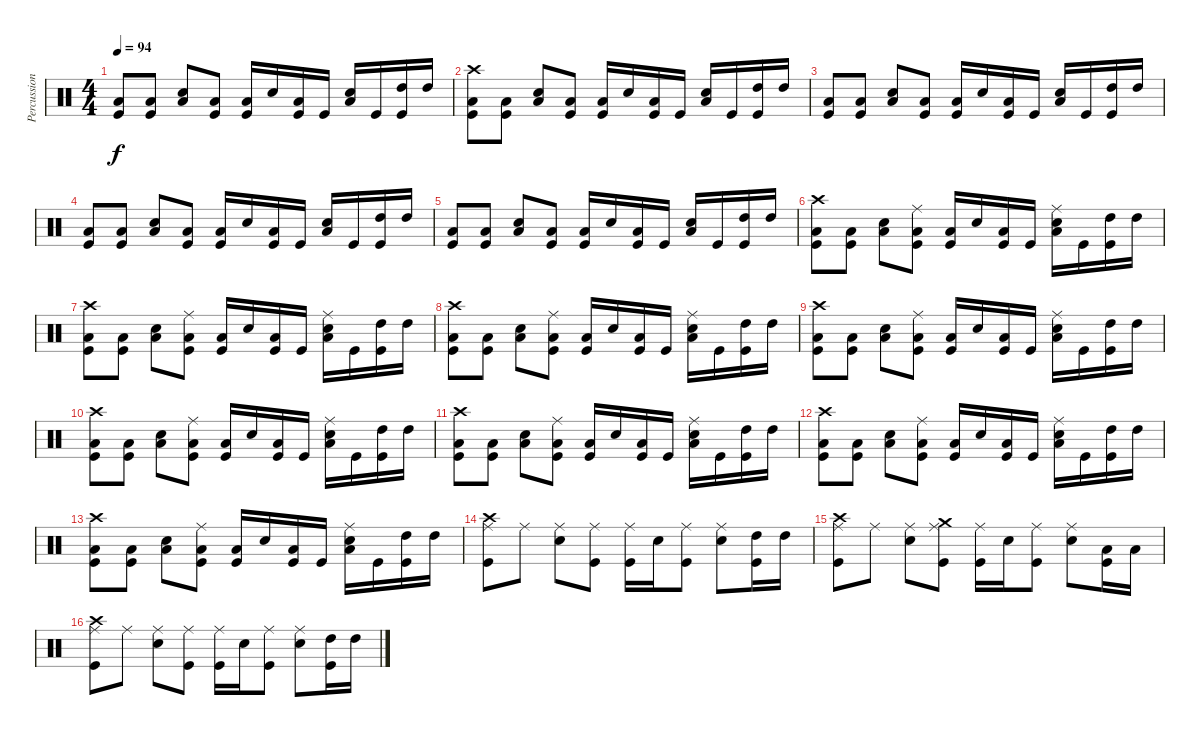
\track ("Percussions" "Percussion") {instrument percussion}
\staff {score}
\articulation defaults
\ts (4 4)
\tempo 94
\clef neutral
\ks c
("Kick (hit)" "Low Floor Tom (hit)").8{dy f} ("Kick (hit)" "Low Floor Tom (hit)").8 ("Electric Snare (hit)" "Low Floor Tom (hit)").8 ("Kick (hit)" "Low Floor Tom (hit)").8 ("Kick (hit)" "Low Floor Tom (hit)").16 "Electric Snare (hit)".16 ("Kick (hit)" "Low Floor Tom (hit)").16 "Kick (hit)".16 ("Electric Snare (hit)" "Low Floor Tom (hit)").16 "Kick (hit)".16 ("High Tom (hit)" "Kick (hit)").16 "High Tom (hit)".16 |
("Crash high (hit)" "Kick (hit)" "Low Floor Tom (hit)").8 ("Kick (hit)" "Low Floor Tom (hit)").8 ("Electric Snare (hit)" "Low Floor Tom (hit)").8 ("Kick (hit)" "Low Floor Tom (hit)").8 ("Kick (hit)" "Low Floor Tom (hit)").16 "Electric Snare (hit)".16 ("Kick (hit)" "Low Floor Tom (hit)").16 "Kick (hit)".16 ("Electric Snare (hit)" "Low Floor Tom (hit)").16 "Kick (hit)".16 ("High Tom (hit)" "Kick (hit)").16 "High Tom (hit)".16 |
("Kick (hit)" "Low Floor Tom (hit)").8 ("Kick (hit)" "Low Floor Tom (hit)").8 ("Electric Snare (hit)" "Low Floor Tom (hit)").8 ("Kick (hit)" "Low Floor Tom (hit)").8 ("Kick (hit)" "Low Floor Tom (hit)").16 "Electric Snare (hit)".16 ("Kick (hit)" "Low Floor Tom (hit)").16 "Kick (hit)".16 ("Electric Snare (hit)" "Low Floor Tom (hit)").16 "Kick (hit)".16 ("High Tom (hit)" "Kick (hit)").16 "High Tom (hit)".16 |
("Kick (hit)" "Low Floor Tom (hit)").8 ("Kick (hit)" "Low Floor Tom (hit)").8 ("Electric Snare (hit)" "Low Floor Tom (hit)").8 ("Kick (hit)" "Low Floor Tom (hit)").8 ("Kick (hit)" "Low Floor Tom (hit)").16 "Electric Snare (hit)".16 ("Kick (hit)" "Low Floor Tom (hit)").16 "Kick (hit)".16 ("Electric Snare (hit)" "Low Floor Tom (hit)").16 "Kick (hit)".16 ("High Tom (hit)" "Kick (hit)").16 "High Tom (hit)".16 |
("Kick (hit)" "Low Floor Tom (hit)").8 ("Kick (hit)" "Low Floor Tom (hit)").8 ("Electric Snare (hit)" "Low Floor Tom (hit)").8 ("Kick (hit)" "Low Floor Tom (hit)").8 ("Kick (hit)" "Low Floor Tom (hit)").16 "Electric Snare (hit)".16 ("Kick (hit)" "Low Floor Tom (hit)").16 "Kick (hit)".16 ("Electric Snare (hit)" "Low Floor Tom (hit)").16 "Kick (hit)".16 ("High Tom (hit)" "Kick (hit)").16 "High Tom (hit)".16 |
("Crash high (hit)" "Kick (hit)" "Low Floor Tom (hit)").8 ("Kick (hit)" "Low Floor Tom (hit)").8 ("Electric Snare (hit)" "Low Floor Tom (hit)").8 ("Ride (middle)" "Kick (hit)" "Low Floor Tom (hit)").8 ("Kick (hit)" "Low Floor Tom (hit)").16 "Electric Snare (hit)".16 ("Kick (hit)" "Low Floor Tom (hit)").16 "Kick (hit)".16 ("Ride (middle)" "Electric Snare (hit)" "Low Floor Tom (hit)").16 "Kick (hit)".16 ("High Tom (hit)" "Kick (hit)").16 "High Tom (hit)".16 |
("Crash high (hit)" "Kick (hit)" "Low Floor Tom (hit)").8 ("Kick (hit)" "Low Floor Tom (hit)").8 ("Electric Snare (hit)" "Low Floor Tom (hit)").8 ("Ride (middle)" "Kick (hit)" "Low Floor Tom (hit)").8 ("Kick (hit)" "Low Floor Tom (hit)").16 "Electric Snare (hit)".16 ("Kick (hit)" "Low Floor Tom (hit)").16 "Kick (hit)".16 ("Ride (middle)" "Electric Snare (hit)" "Low Floor Tom (hit)").16 "Kick (hit)".16 ("High Tom (hit)" "Kick (hit)").16 "High Tom (hit)".16 |
("Crash high (hit)" "Kick (hit)" "Low Floor Tom (hit)").8 ("Kick (hit)" "Low Floor Tom (hit)").8 ("Electric Snare (hit)" "Low Floor Tom (hit)").8 ("Ride (middle)" "Kick (hit)" "Low Floor Tom (hit)").8 ("Kick (hit)" "Low Floor Tom (hit)").16 "Electric Snare (hit)".16 ("Kick (hit)" "Low Floor Tom (hit)").16 "Kick (hit)".16 ("Ride (middle)" "Electric Snare (hit)" "Low Floor Tom (hit)").16 "Kick (hit)".16 ("High Tom (hit)" "Kick (hit)").16 "High Tom (hit)".16 |
("Crash high (hit)" "Kick (hit)" "Low Floor Tom (hit)").8 ("Kick (hit)" "Low Floor Tom (hit)").8 ("Electric Snare (hit)" "Low Floor Tom (hit)").8 ("Ride (middle)" "Kick (hit)" "Low Floor Tom (hit)").8 ("Kick (hit)" "Low Floor Tom (hit)").16 "Electric Snare (hit)".16 ("Kick (hit)" "Low Floor Tom (hit)").16 "Kick (hit)".16 ("Ride (middle)" "Electric Snare (hit)" "Low Floor Tom (hit)").16 "Kick (hit)".16 ("High Tom (hit)" "Kick (hit)").16 "High Tom (hit)".16 |
("Crash high (hit)" "Kick (hit)" "Low Floor Tom (hit)").8 ("Kick (hit)" "Low Floor Tom (hit)").8 ("Electric Snare (hit)" "Low Floor Tom (hit)").8 ("Ride (middle)" "Kick (hit)" "Low Floor Tom (hit)").8 ("Kick (hit)" "Low Floor Tom (hit)").16 "Electric Snare (hit)".16 ("Kick (hit)" "Low Floor Tom (hit)").16 "Kick (hit)".16 ("Ride (middle)" "Electric Snare (hit)" "Low Floor Tom (hit)").16 "Kick (hit)".16 ("High Tom (hit)" "Kick (hit)").16 "High Tom (hit)".16 |
("Crash high (hit)" "Kick (hit)" "Low Floor Tom (hit)").8 ("Kick (hit)" "Low Floor Tom (hit)").8 ("Electric Snare (hit)" "Low Floor Tom (hit)").8 ("Ride (middle)" "Kick (hit)" "Low Floor Tom (hit)").8 ("Kick (hit)" "Low Floor Tom (hit)").16 "Electric Snare (hit)".16 ("Kick (hit)" "Low Floor Tom (hit)").16 "Kick (hit)".16 ("Ride (middle)" "Electric Snare (hit)" "Low Floor Tom (hit)").16 "Kick (hit)".16 ("High Tom (hit)" "Kick (hit)").16 "High Tom (hit)".16 |
("Crash high (hit)" "Kick (hit)" "Low Floor Tom (hit)").8 ("Kick (hit)" "Low Floor Tom (hit)").8 ("Electric Snare (hit)" "Low Floor Tom (hit)").8 ("Ride (middle)" "Kick (hit)" "Low Floor Tom (hit)").8 ("Kick (hit)" "Low Floor Tom (hit)").16 "Electric Snare (hit)".16 ("Kick (hit)" "Low Floor Tom (hit)").16 "Kick (hit)".16 ("Ride (middle)" "Electric Snare (hit)" "Low Floor Tom (hit)").16 "Kick (hit)".16 ("High Tom (hit)" "Kick (hit)").16 "High Tom (hit)".16 |
("Crash high (hit)" "Kick (hit)" "Low Floor Tom (hit)").8 ("Kick (hit)" "Low Floor Tom (hit)").8 ("Electric Snare (hit)" "Low Floor Tom (hit)").8 ("Ride (middle)" "Kick (hit)" "Low Floor Tom (hit)").8 ("Kick (hit)" "Low Floor Tom (hit)").16 "Electric Snare (hit)".16 ("Kick (hit)" "Low Floor Tom (hit)").16 "Kick (hit)".16 ("Ride (middle)" "Electric Snare (hit)" "Low Floor Tom (hit)").16 "Kick (hit)".16 ("High Tom (hit)" "Kick (hit)").16 "High Tom (hit)".16 |
("Kick (hit)" "Crash high (hit)" "Ride (middle)").8 "Ride (middle)".8 ("Electric Snare (hit)" "Ride (middle)").8 ("Kick (hit)" "Ride (middle)").8 ("Kick (hit)" "Ride (middle)").16 "Electric Snare (hit)".16 ("Kick (hit)" "Ride (middle)").8 ("Electric Snare (hit)" "Ride (middle)").8 ("High Tom (hit)" "Kick (hit)").16 "High Tom (hit)".16 |
("Kick (hit)" "Crash high (hit)" "Ride (middle)").8 "Ride (middle)".8 ("Electric Snare (hit)" "Ride (middle)").8 ("Crash medium (hit)" "Kick (hit)" "Ride (middle)").8 ("Kick (hit)" "Ride (middle)").16 "Electric Snare (hit)".16 ("Kick (hit)" "Ride (middle)").8 ("Electric Snare (hit)" "Ride (middle)").8 ("Low Floor Tom (hit)" "Kick (hit)").16 "Low Floor Tom (hit)".16 |
("Kick (hit)" "Crash high (hit)" "Ride (middle)").8 "Ride (middle)".8 ("Electric Snare (hit)" "Ride (middle)").8 ("Kick (hit)" "Ride (middle)").8 ("Kick (hit)" "Ride (middle)").16 "Electric Snare (hit)".16 ("Kick (hit)" "Ride (middle)").8 ("Electric Snare (hit)" "Ride (middle)").8 ("High Tom (hit)" "Kick (hit)").16 "High Tom (hit)".16
